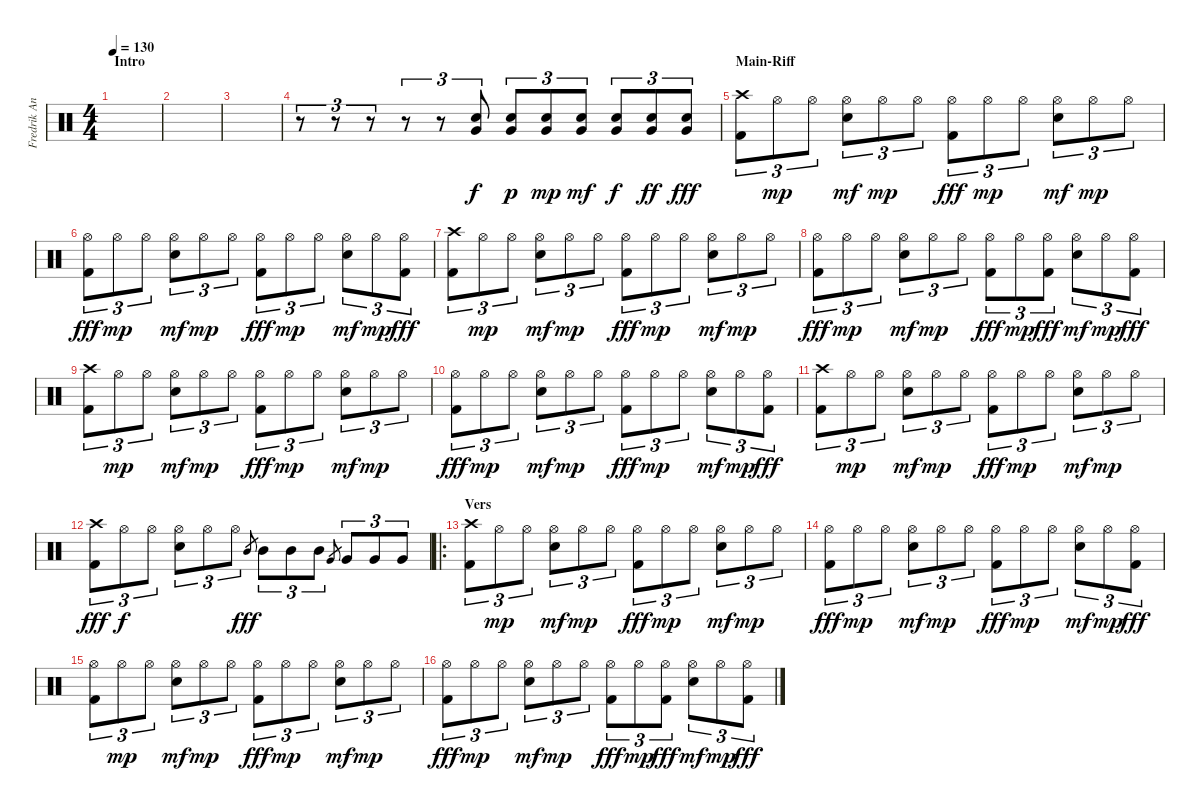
\track ("Fredrik Andersson" "Fredrik An") {instrument percussion}
\staff {score}
\articulation defaults
\ts (4 4)
\section ("" "Intro")
\tempo 130
\clef neutral
\ks c
|
|
|
r.8{tu (3 2)} r.8{tu (3 2)} r.8{tu (3 2)} r.8{tu (3 2)} r.8{tu (3 2)} ("Snare (hit) 2" "Very Low Tom (hit)").8{tu (3 2)} ("Snare (hit) 2" "Very Low Tom (hit)").8{tu (3 2) dy p} ("Snare (hit) 2" "Very Low Tom (hit)").8{tu (3 2) dy mp} ("Snare (hit) 2" "Very Low Tom (hit)").8{tu (3 2) dy mf} ("Snare (hit) 2" "Very Low Tom (hit)").8{tu (3 2) dy f} ("Snare (hit) 2" "Very Low Tom (hit)").8{tu (3 2) dy ff} ("Snare (hit) 2" "Very Low Tom (hit)").8{tu (3 2) dy fff} |
\section ("" "Main-Riff")
("Crash high (hit)" "Kick (hit) 2").8{tu (3 2)} "Hi-Hat (open)".8{tu (3 2) dy mp} "Hi-Hat (open)".8{tu (3 2)} ("Hi-Hat (open)" "Snare (hit) 2").8{tu (3 2) dy mf} "Hi-Hat (open)".8{tu (3 2) dy mp} "Hi-Hat (open)".8{tu (3 2)} ("Hi-Hat (open)" "Kick (hit) 2").8{tu (3 2) dy fff} "Hi-Hat (open)".8{tu (3 2) dy mp} "Hi-Hat (open)".8{tu (3 2)} ("Hi-Hat (open)" "Snare (hit) 2").8{tu (3 2) dy mf} "Hi-Hat (open)".8{tu (3 2) dy mp} "Hi-Hat (open)".8{tu (3 2)} |
("Hi-Hat (open)" "Kick (hit) 2").8{tu (3 2) dy fff} "Hi-Hat (open)".8{tu (3 2) dy mp} "Hi-Hat (open)".8{tu (3 2)} ("Hi-Hat (open)" "Snare (hit) 2").8{tu (3 2) dy mf} "Hi-Hat (open)".8{tu (3 2) dy mp} "Hi-Hat (open)".8{tu (3 2)} ("Hi-Hat (open)" "Kick (hit) 2").8{tu (3 2) dy fff} "Hi-Hat (open)".8{tu (3 2) dy mp} "Hi-Hat (open)".8{tu (3 2)} ("Hi-Hat (open)" "Snare (hit) 2").8{tu (3 2) dy mf} "Hi-Hat (open)".8{tu (3 2) dy mp} ("Hi-Hat (open)" "Kick (hit) 2").8{tu (3 2) dy fff} |
("Crash high (hit)" "Kick (hit) 2").8{tu (3 2)} "Hi-Hat (open)".8{tu (3 2) dy mp} "Hi-Hat (open)".8{tu (3 2)} ("Hi-Hat (open)" "Snare (hit) 2").8{tu (3 2) dy mf} "Hi-Hat (open)".8{tu (3 2) dy mp} "Hi-Hat (open)".8{tu (3 2)} ("Hi-Hat (open)" "Kick (hit) 2").8{tu (3 2) dy fff} "Hi-Hat (open)".8{tu (3 2) dy mp} "Hi-Hat (open)".8{tu (3 2)} ("Hi-Hat (open)" "Snare (hit) 2").8{tu (3 2) dy mf} "Hi-Hat (open)".8{tu (3 2) dy mp} "Hi-Hat (open)".8{tu (3 2)} |
("Hi-Hat (open)" "Kick (hit) 2").8{tu (3 2) dy fff} "Hi-Hat (open)".8{tu (3 2) dy mp} "Hi-Hat (open)".8{tu (3 2)} ("Hi-Hat (open)" "Snare (hit) 2").8{tu (3 2) dy mf} "Hi-Hat (open)".8{tu (3 2) dy mp} "Hi-Hat (open)".8{tu (3 2)} ("Hi-Hat (open)" "Kick (hit) 2").8{tu (3 2) dy fff} "Hi-Hat (open)".8{tu (3 2) dy mp} ("Hi-Hat (open)" "Kick (hit) 2").8{tu (3 2) dy fff} ("Hi-Hat (open)" "Snare (hit) 2").8{tu (3 2) dy mf} "Hi-Hat (open)".8{tu (3 2) dy mp} ("Hi-Hat (open)" "Kick (hit) 2").8{tu (3 2) dy fff} |
("Crash high (hit)" "Kick (hit) 2").8{tu (3 2)} "Hi-Hat (open)".8{tu (3 2) dy mp} "Hi-Hat (open)".8{tu (3 2)} ("Hi-Hat (open)" "Snare (hit) 2").8{tu (3 2) dy mf} "Hi-Hat (open)".8{tu (3 2) dy mp} "Hi-Hat (open)".8{tu (3 2)} ("Hi-Hat (open)" "Kick (hit) 2").8{tu (3 2) dy fff} "Hi-Hat (open)".8{tu (3 2) dy mp} "Hi-Hat (open)".8{tu (3 2)} ("Hi-Hat (open)" "Snare (hit) 2").8{tu (3 2) dy mf} "Hi-Hat (open)".8{tu (3 2) dy mp} "Hi-Hat (open)".8{tu (3 2)} |
("Hi-Hat (open)" "Kick (hit) 2").8{tu (3 2) dy fff} "Hi-Hat (open)".8{tu (3 2) dy mp} "Hi-Hat (open)".8{tu (3 2)} ("Hi-Hat (open)" "Snare (hit) 2").8{tu (3 2) dy mf} "Hi-Hat (open)".8{tu (3 2) dy mp} "Hi-Hat (open)".8{tu (3 2)} ("Hi-Hat (open)" "Kick (hit) 2").8{tu (3 2) dy fff} "Hi-Hat (open)".8{tu (3 2) dy mp} "Hi-Hat (open)".8{tu (3 2)} ("Hi-Hat (open)" "Snare (hit) 2").8{tu (3 2) dy mf} "Hi-Hat (open)".8{tu (3 2) dy mp} ("Hi-Hat (open)" "Kick (hit) 2").8{tu (3 2) dy fff} |
("Crash high (hit)" "Kick (hit) 2").8{tu (3 2)} "Hi-Hat (open)".8{tu (3 2) dy mp} "Hi-Hat (open)".8{tu (3 2)} ("Hi-Hat (open)" "Snare (hit) 2").8{tu (3 2) dy mf} "Hi-Hat (open)".8{tu (3 2) dy mp} "Hi-Hat (open)".8{tu (3 2)} ("Hi-Hat (open)" "Kick (hit) 2").8{tu (3 2) dy fff} "Hi-Hat (open)".8{tu (3 2) dy mp} "Hi-Hat (open)".8{tu (3 2)} ("Hi-Hat (open)" "Snare (hit) 2").8{tu (3 2) dy mf} "Hi-Hat (open)".8{tu (3 2) dy mp} "Hi-Hat (open)".8{tu (3 2)} |
("Crash high (hit)" "Kick (hit) 2").8{tu (3 2) dy fff} "Hi-Hat (open)".8{tu (3 2) dy f} "Hi-Hat (open)".8{tu (3 2)} ("Hi-Hat (open)" "Snare (hit) 2").8{tu (3 2)} "Hi-Hat (open)".8{tu (3 2)} "Hi-Hat (open)".8{tu (3 2)} "Mid Tom (hit)".8{gr dy fff} "Mid Tom (hit)".8{tu (3 2)} "Mid Tom (hit)".8{tu (3 2)} "Mid Tom (hit)".8{tu (3 2)} "Very Low Tom (hit)".8{gr} "Very Low Tom (hit)".8{tu (3 2)} "Very Low Tom (hit)".8{tu (3 2)} "Very Low Tom (hit)".8{tu (3 2)} |
\ro
\section ("" "Vers")
("Crash high (hit)" "Kick (hit) 2").8{tu (3 2)} "Hi-Hat (open)".8{tu (3 2) dy mp} "Hi-Hat (open)".8{tu (3 2)} ("Hi-Hat (open)" "Snare (hit) 2").8{tu (3 2) dy mf} "Hi-Hat (open)".8{tu (3 2) dy mp} "Hi-Hat (open)".8{tu (3 2)} ("Hi-Hat (open)" "Kick (hit) 2").8{tu (3 2) dy fff} "Hi-Hat (open)".8{tu (3 2) dy mp} "Hi-Hat (open)".8{tu (3 2)} ("Hi-Hat (open)" "Snare (hit) 2").8{tu (3 2) dy mf} "Hi-Hat (open)".8{tu (3 2) dy mp} "Hi-Hat (open)".8{tu (3 2)} |
("Hi-Hat (open)" "Kick (hit) 2").8{tu (3 2) dy fff} "Hi-Hat (open)".8{tu (3 2) dy mp} "Hi-Hat (open)".8{tu (3 2)} ("Hi-Hat (open)" "Snare (hit) 2").8{tu (3 2) dy mf} "Hi-Hat (open)".8{tu (3 2) dy mp} "Hi-Hat (open)".8{tu (3 2)} ("Hi-Hat (open)" "Kick (hit) 2").8{tu (3 2) dy fff} "Hi-Hat (open)".8{tu (3 2) dy mp} "Hi-Hat (open)".8{tu (3 2)} ("Hi-Hat (open)" "Snare (hit) 2").8{tu (3 2) dy mf} "Hi-Hat (open)".8{tu (3 2) dy mp} ("Hi-Hat (open)" "Kick (hit) 2").8{tu (3 2) dy fff} |
("Hi-Hat (open)" "Kick (hit) 2").8{tu (3 2)} "Hi-Hat (open)".8{tu (3 2) dy mp} "Hi-Hat (open)".8{tu (3 2)} ("Hi-Hat (open)" "Snare (hit) 2").8{tu (3 2) dy mf} "Hi-Hat (open)".8{tu (3 2) dy mp} "Hi-Hat (open)".8{tu (3 2)} ("Hi-Hat (open)" "Kick (hit) 2").8{tu (3 2) dy fff} "Hi-Hat (open)".8{tu (3 2) dy mp} "Hi-Hat (open)".8{tu (3 2)} ("Hi-Hat (open)" "Snare (hit) 2").8{tu (3 2) dy mf} "Hi-Hat (open)".8{tu (3 2) dy mp} "Hi-Hat (open)".8{tu (3 2)} |
("Hi-Hat (open)" "Kick (hit) 2").8{tu (3 2) dy fff} "Hi-Hat (open)".8{tu (3 2) dy mp} "Hi-Hat (open)".8{tu (3 2)} ("Hi-Hat (open)" "Snare (hit) 2").8{tu (3 2) dy mf} "Hi-Hat (open)".8{tu (3 2) dy mp} "Hi-Hat (open)".8{tu (3 2)} ("Hi-Hat (open)" "Kick (hit) 2").8{tu (3 2) dy fff} "Hi-Hat (open)".8{tu (3 2) dy mp} ("Hi-Hat (open)" "Kick (hit) 2").8{tu (3 2) dy fff} ("Hi-Hat (open)" "Snare (hit) 2").8{tu (3 2) dy mf} "Hi-Hat (open)".8{tu (3 2) dy mp} ("Hi-Hat (open)" "Kick (hit) 2").8{tu (3 2) dy fff}
